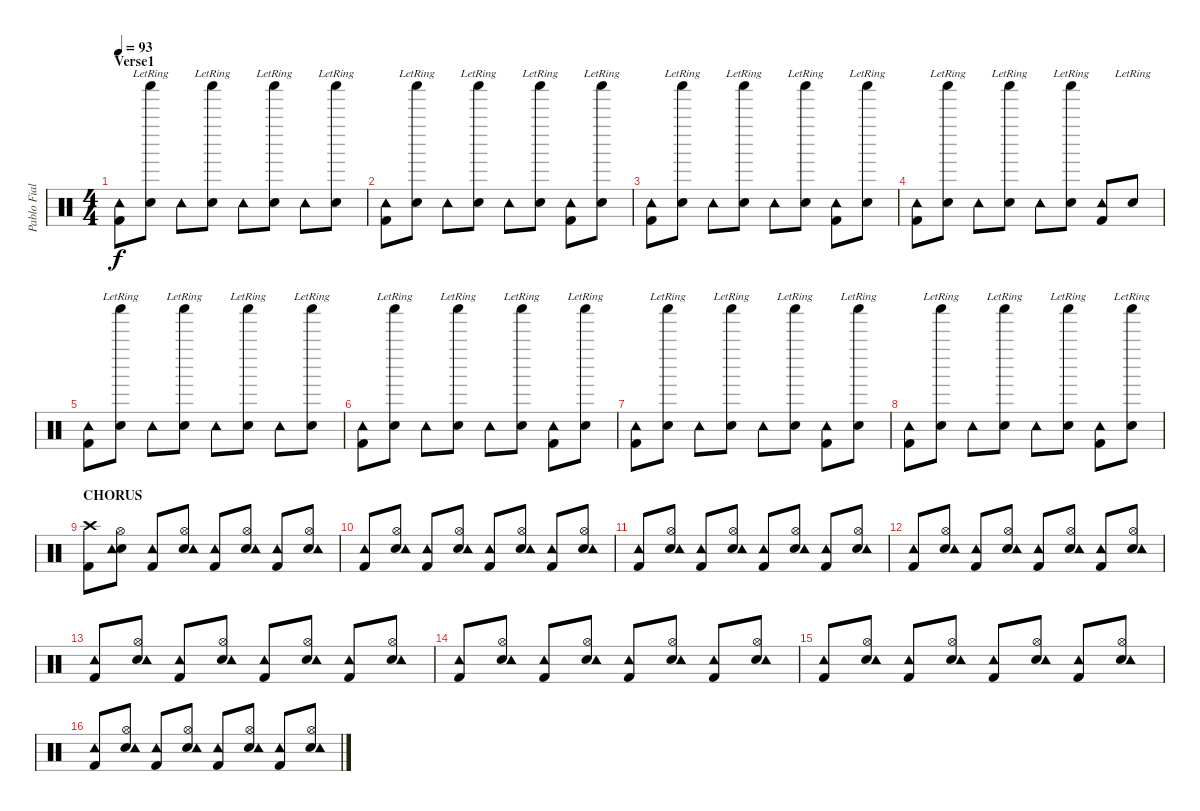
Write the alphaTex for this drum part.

\track ("Pablo Fiallo" "Pablo Fial") {instrument percussion}
\staff {score}
\articulation defaults
\ts (4 4)
\section ("" "Verse1")
\tempo 93
\clef neutral
\ks c
("Tambourine (hit)" "Kick (hit) 2").8{dy f} ("Hand Clap (hit)"{lr} "Shaker (hit)").8 "Tambourine (hit)".8 ("Hand Clap (hit)"{lr} "Shaker (hit)").8 "Tambourine (hit)".8 ("Hand Clap (hit)"{lr} "Shaker (hit)").8 "Tambourine (hit)".8 ("Hand Clap (hit)"{lr} "Shaker (hit)").8 |
("Tambourine (hit)" "Kick (hit) 2").8 ("Hand Clap (hit)"{lr} "Shaker (hit)").8 "Tambourine (hit)".8 ("Hand Clap (hit)"{lr} "Shaker (hit)").8 "Tambourine (hit)".8 ("Hand Clap (hit)"{lr} "Shaker (hit)").8 ("Tambourine (hit)" "Kick (hit) 2").8 ("Hand Clap (hit)"{lr} "Shaker (hit)").8 |
("Tambourine (hit)" "Kick (hit) 2").8 ("Hand Clap (hit)"{lr} "Shaker (hit)").8 "Tambourine (hit)".8 ("Hand Clap (hit)"{lr} "Shaker (hit)").8 "Tambourine (hit)".8 ("Hand Clap (hit)"{lr} "Shaker (hit)").8 ("Tambourine (hit)" "Kick (hit) 2").8 ("Hand Clap (hit)"{lr} "Shaker (hit)").8 |
("Tambourine (hit)" "Kick (hit) 2").8 ("Hand Clap (hit)"{lr} "Shaker (hit)").8 "Tambourine (hit)".8 ("Hand Clap (hit)"{lr} "Shaker (hit)").8 "Tambourine (hit)".8 ("Hand Clap (hit)"{lr} "Shaker (hit)").8 ("Tambourine (hit)" "Kick (hit) 2").8 "Hand Clap (hit)"{lr}.8 |
("Tambourine (hit)" "Kick (hit) 2").8 ("Hand Clap (hit)"{lr} "Shaker (hit)").8 "Tambourine (hit)".8 ("Hand Clap (hit)"{lr} "Shaker (hit)").8 "Tambourine (hit)".8 ("Hand Clap (hit)"{lr} "Shaker (hit)").8 "Tambourine (hit)".8 ("Hand Clap (hit)"{lr} "Shaker (hit)").8 |
("Tambourine (hit)" "Kick (hit) 2").8 ("Hand Clap (hit)"{lr} "Shaker (hit)").8 "Tambourine (hit)".8 ("Hand Clap (hit)"{lr} "Shaker (hit)").8 "Tambourine (hit)".8 ("Hand Clap (hit)"{lr} "Shaker (hit)").8 ("Tambourine (hit)" "Kick (hit) 2").8 ("Hand Clap (hit)"{lr} "Shaker (hit)").8 |
("Tambourine (hit)" "Kick (hit) 2").8 ("Hand Clap (hit)"{lr} "Shaker (hit)").8 "Tambourine (hit)".8 ("Hand Clap (hit)"{lr} "Shaker (hit)").8 "Tambourine (hit)".8 ("Hand Clap (hit)"{lr} "Shaker (hit)").8 ("Tambourine (hit)" "Kick (hit) 2").8 ("Hand Clap (hit)"{lr} "Shaker (hit)").8 |
("Tambourine (hit)" "Kick (hit) 2").8 ("Hand Clap (hit)"{lr} "Shaker (hit)").8 "Tambourine (hit)".8 ("Hand Clap (hit)"{lr} "Shaker (hit)").8 "Tambourine (hit)".8 ("Hand Clap (hit)"{lr} "Shaker (hit)").8 ("Tambourine (hit)" "Kick (hit) 2").8 ("Hand Clap (hit)"{lr} "Shaker (hit)").8 |
\section ("" "CHORUS")
("Crash high (hit)" "Kick (hit) 2").8 ("Hi-Hat (open)" "Snare (hit) 2" "Tambourine (hit)").8 ("Kick (hit) 2" "Tambourine (hit)").8 ("Hi-Hat (open)" "Snare (hit) 2" "Tambourine (hit)").8 ("Kick (hit) 2" "Tambourine (hit)").8 ("Hi-Hat (open)" "Snare (hit) 2" "Tambourine (hit)").8 ("Kick (hit) 2" "Tambourine (hit)").8 ("Hi-Hat (open)" "Snare (hit) 2" "Tambourine (hit)").8 |
("Kick (hit) 2" "Tambourine (hit)").8 ("Hi-Hat (open)" "Snare (hit) 2" "Tambourine (hit)").8 ("Kick (hit) 2" "Tambourine (hit)").8 ("Hi-Hat (open)" "Snare (hit) 2" "Tambourine (hit)").8 ("Kick (hit) 2" "Tambourine (hit)").8 ("Hi-Hat (open)" "Snare (hit) 2" "Tambourine (hit)").8 ("Kick (hit) 2" "Tambourine (hit)").8 ("Hi-Hat (open)" "Snare (hit) 2" "Tambourine (hit)").8 |
("Kick (hit) 2" "Tambourine (hit)").8 ("Hi-Hat (open)" "Snare (hit) 2" "Tambourine (hit)").8 ("Kick (hit) 2" "Tambourine (hit)").8 ("Hi-Hat (open)" "Snare (hit) 2" "Tambourine (hit)").8 ("Kick (hit) 2" "Tambourine (hit)").8 ("Hi-Hat (open)" "Snare (hit) 2" "Tambourine (hit)").8 ("Kick (hit) 2" "Tambourine (hit)").8 ("Hi-Hat (open)" "Snare (hit) 2" "Tambourine (hit)").8 |
("Kick (hit) 2" "Tambourine (hit)").8 ("Hi-Hat (open)" "Snare (hit) 2" "Tambourine (hit)").8 ("Kick (hit) 2" "Tambourine (hit)").8 ("Hi-Hat (open)" "Snare (hit) 2" "Tambourine (hit)").8 ("Kick (hit) 2" "Tambourine (hit)").8 ("Hi-Hat (open)" "Snare (hit) 2" "Tambourine (hit)").8 ("Kick (hit) 2" "Tambourine (hit)").8 ("Hi-Hat (open)" "Snare (hit) 2" "Tambourine (hit)").8 |
("Kick (hit) 2" "Tambourine (hit)").8 ("Hi-Hat (open)" "Snare (hit) 2" "Tambourine (hit)").8 ("Kick (hit) 2" "Tambourine (hit)").8 ("Hi-Hat (open)" "Snare (hit) 2" "Tambourine (hit)").8 ("Kick (hit) 2" "Tambourine (hit)").8 ("Hi-Hat (open)" "Snare (hit) 2" "Tambourine (hit)").8 ("Kick (hit) 2" "Tambourine (hit)").8 ("Hi-Hat (open)" "Snare (hit) 2" "Tambourine (hit)").8 |
("Kick (hit) 2" "Tambourine (hit)").8 ("Hi-Hat (open)" "Snare (hit) 2" "Tambourine (hit)").8 ("Kick (hit) 2" "Tambourine (hit)").8 ("Hi-Hat (open)" "Snare (hit) 2" "Tambourine (hit)").8 ("Kick (hit) 2" "Tambourine (hit)").8 ("Hi-Hat (open)" "Snare (hit) 2" "Tambourine (hit)").8 ("Kick (hit) 2" "Tambourine (hit)").8 ("Hi-Hat (open)" "Snare (hit) 2" "Tambourine (hit)").8 |
("Kick (hit) 2" "Tambourine (hit)").8 ("Hi-Hat (open)" "Snare (hit) 2" "Tambourine (hit)").8 ("Kick (hit) 2" "Tambourine (hit)").8 ("Hi-Hat (open)" "Snare (hit) 2" "Tambourine (hit)").8 ("Kick (hit) 2" "Tambourine (hit)").8 ("Hi-Hat (open)" "Snare (hit) 2" "Tambourine (hit)").8 ("Kick (hit) 2" "Tambourine (hit)").8 ("Hi-Hat (open)" "Snare (hit) 2" "Tambourine (hit)").8 |
("Kick (hit) 2" "Tambourine (hit)").8 ("Hi-Hat (open)" "Snare (hit) 2" "Tambourine (hit)").8 ("Kick (hit) 2" "Tambourine (hit)").8 ("Hi-Hat (open)" "Snare (hit) 2" "Tambourine (hit)").8 ("Kick (hit) 2" "Tambourine (hit)").8 ("Hi-Hat (open)" "Snare (hit) 2" "Tambourine (hit)").8 ("Kick (hit) 2" "Tambourine (hit)").8 ("Hi-Hat (open)" "Snare (hit) 2" "Tambourine (hit)").8
